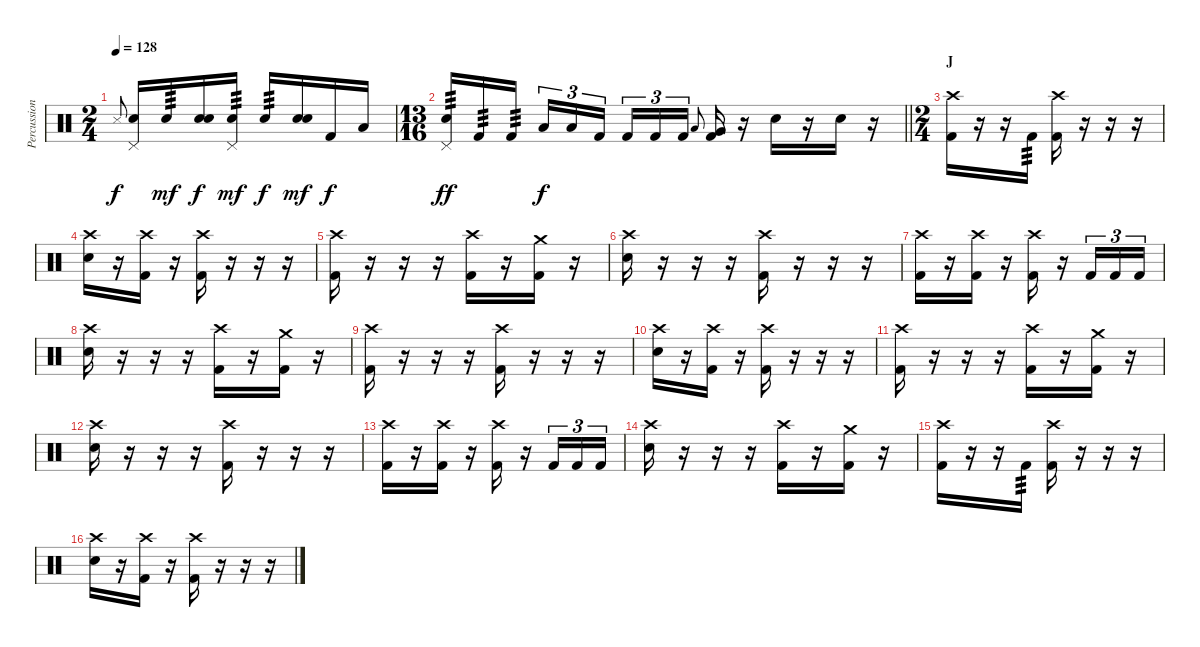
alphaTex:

\track ("Percussion" "Percussion") {instrument percussion}
\staff {score}
\articulation defaults
\ts (2 4)
\tempo 128
\clef neutral
\ks c "Metronome (hit)".8{gr onbeat dy f}
("Pedal Hi-Hat (hit)" "Snare (hit) 2").16 "Snare (hit) 2".16{tp 3 dy mf} ("Snare (hit)" "Snare (hit) 2").16{dy f} ("Pedal Hi-Hat (hit)" "Snare (hit) 2").16{tp 3 dy mf} "Snare (hit) 2".16{tp 3 dy f} ("Snare (hit)" "Snare (hit) 2").16{dy mf} "Kick (hit) 2".16{dy f} "Low Floor Tom (hit)".16 |
\ts (13 16)
\barLineRight lightlight
("Pedal Hi-Hat (hit)" "Snare (hit) 2").16{tp 3 dy ff} "Kick (hit) 2".16{tp 3} "Kick (hit) 2".16{tp 3} "Low Tom (hit)".16{tu (3 2) dy f} "Low Tom (hit)".16{tu (3 2)} "Kick (hit) 2".16{tu (3 2)} "Kick (hit) 2".16{tu (3 2)} "Kick (hit) 2".16{tu (3 2)} "Kick (hit) 2".16{tu (3 2)} "Low Tom (hit)".8{gr onbeat} ("Very Low Tom (hit)" "Kick (hit) 2").16 r.16 "Snare (hit)".16 r.16 "Snare (hit)".16 r.16 |
\ts (2 4)
\section ("" "J")
("Crash high (hit)" "Kick (hit) 2").16 r.16 r.16 "Kick (hit) 2".16{tp 3} ("Crash high (hit)" "Kick (hit) 2").16 r.16 r.16 r.16 |
("Crash high (hit)" "Snare (hit) 2").16 r.16 ("Crash high (hit)" "Kick (hit) 2").16 r.16 ("Crash high (hit)" "Kick (hit) 2").16 r.16 r.16 r.16 |
("Crash high (hit)" "Kick (hit) 2").16 r.16 r.16 r.16 ("Crash high (hit)" "Kick (hit) 2").16 r.16 ("Crash medium (hit)" "Kick (hit) 2").16 r.16 |
("Crash high (hit)" "Snare (hit) 2").16 r.16 r.16 r.16 ("Crash high (hit)" "Kick (hit) 2").16 r.16 r.16 r.16 |
("Crash high (hit)" "Kick (hit) 2").16 r.16 ("Crash high (hit)" "Kick (hit) 2").16 r.16 ("Crash high (hit)" "Kick (hit) 2").16 r.16 "Kick (hit) 2".16{tu (3 2)} "Kick (hit) 2".16{tu (3 2)} "Kick (hit) 2".16{tu (3 2)} |
("Crash high (hit)" "Snare (hit) 2").16 r.16 r.16 r.16 ("Crash high (hit)" "Kick (hit) 2").16 r.16 ("Crash medium (hit)" "Kick (hit) 2").16 r.16 |
("Crash high (hit)" "Kick (hit) 2").16 r.16 r.16 r.16 ("Crash high (hit)" "Kick (hit) 2").16 r.16 r.16 r.16 |
("Crash high (hit)" "Snare (hit) 2").16 r.16 ("Crash high (hit)" "Kick (hit) 2").16 r.16 ("Crash high (hit)" "Kick (hit) 2").16 r.16 r.16 r.16 |
("Crash high (hit)" "Kick (hit) 2").16 r.16 r.16 r.16 ("Crash high (hit)" "Kick (hit) 2").16 r.16 ("Crash medium (hit)" "Kick (hit) 2").16 r.16 |
("Crash high (hit)" "Snare (hit) 2").16 r.16 r.16 r.16 ("Crash high (hit)" "Kick (hit) 2").16 r.16 r.16 r.16 |
("Crash high (hit)" "Kick (hit) 2").16 r.16 ("Crash high (hit)" "Kick (hit) 2").16 r.16 ("Crash high (hit)" "Kick (hit) 2").16 r.16 "Kick (hit) 2".16{tu (3 2)} "Kick (hit) 2".16{tu (3 2)} "Kick (hit) 2".16{tu (3 2)} |
("Crash high (hit)" "Snare (hit) 2").16 r.16 r.16 r.16 ("Crash high (hit)" "Kick (hit) 2").16 r.16 ("Crash medium (hit)" "Kick (hit) 2").16 r.16 |
("Crash high (hit)" "Kick (hit) 2").16 r.16 r.16 "Kick (hit) 2".16{tp 3} ("Crash high (hit)" "Kick (hit) 2").16 r.16 r.16 r.16 |
("Crash high (hit)" "Snare (hit) 2").16 r.16 ("Crash high (hit)" "Kick (hit) 2").16 r.16 ("Crash high (hit)" "Kick (hit) 2").16 r.16 r.16 r.16
